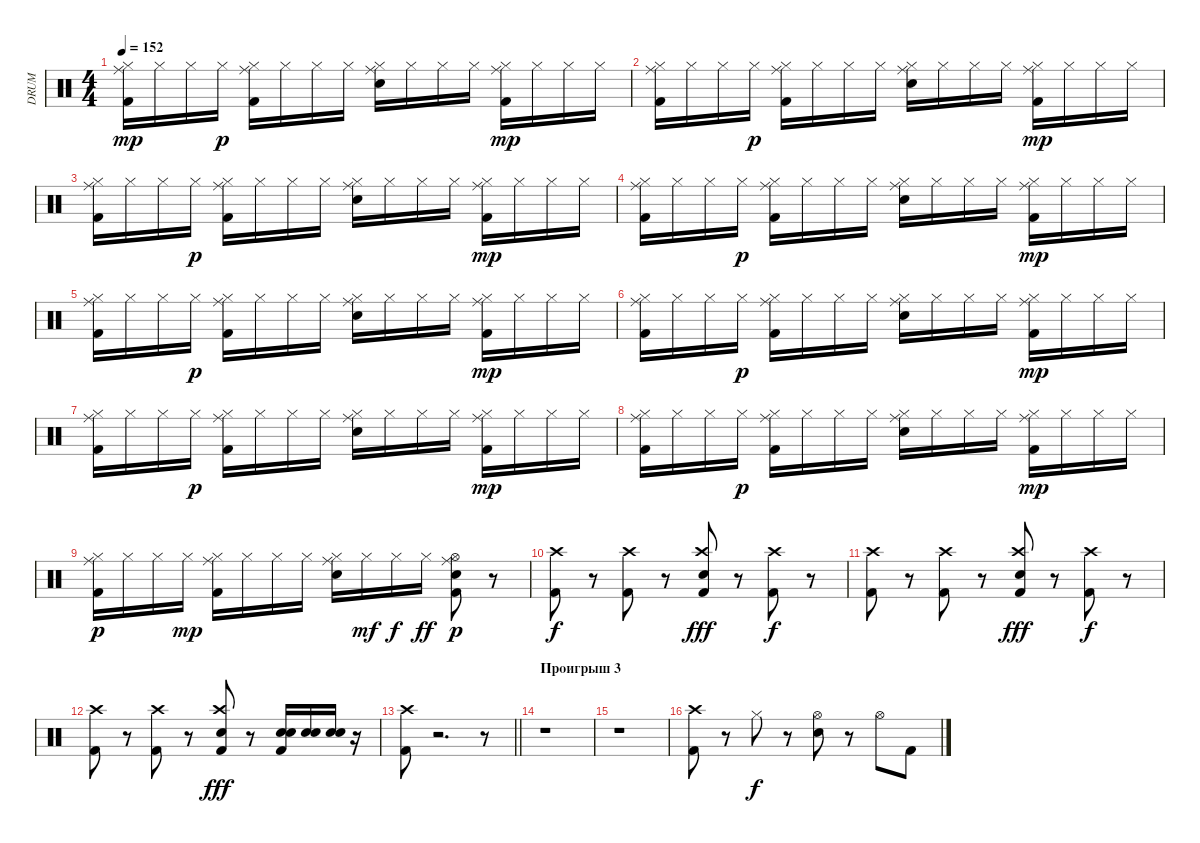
\track ("DRUM" "DRUM") {instrument percussion}
\staff {score}
\articulation defaults
\ts (4 4)
\tempo 152
\clef neutral
\ks c
("Ride (middle)" "Hi-Hat (closed)" "Kick (hit) 2").16{dy mp} "Hi-Hat (closed)".16 "Hi-Hat (closed)".16 "Hi-Hat (closed)".16{dy p} ("Ride (middle)" "Hi-Hat (closed)" "Kick (hit) 2").16 "Hi-Hat (closed)".16 "Hi-Hat (closed)".16 "Hi-Hat (closed)".16 ("Ride (middle)" "Hi-Hat (closed)" "Snare (hit) 2").16 "Hi-Hat (closed)".16 "Hi-Hat (closed)".16 "Hi-Hat (closed)".16 ("Ride (middle)" "Hi-Hat (closed)" "Kick (hit) 2").16{dy mp} "Hi-Hat (closed)".16 "Hi-Hat (closed)".16 "Hi-Hat (closed)".16 |
("Ride (middle)" "Hi-Hat (closed)" "Kick (hit) 2").16 "Hi-Hat (closed)".16 "Hi-Hat (closed)".16 "Hi-Hat (closed)".16{dy p} ("Ride (middle)" "Hi-Hat (closed)" "Kick (hit) 2").16 "Hi-Hat (closed)".16 "Hi-Hat (closed)".16 "Hi-Hat (closed)".16 ("Ride (middle)" "Hi-Hat (closed)" "Snare (hit) 2").16 "Hi-Hat (closed)".16 "Hi-Hat (closed)".16 "Hi-Hat (closed)".16 ("Ride (middle)" "Hi-Hat (closed)" "Kick (hit) 2").16{dy mp} "Hi-Hat (closed)".16 "Hi-Hat (closed)".16 "Hi-Hat (closed)".16 |
("Ride (middle)" "Hi-Hat (closed)" "Kick (hit) 2").16 "Hi-Hat (closed)".16 "Hi-Hat (closed)".16 "Hi-Hat (closed)".16{dy p} ("Ride (middle)" "Hi-Hat (closed)" "Kick (hit) 2").16 "Hi-Hat (closed)".16 "Hi-Hat (closed)".16 "Hi-Hat (closed)".16 ("Ride (middle)" "Hi-Hat (closed)" "Snare (hit) 2").16 "Hi-Hat (closed)".16 "Hi-Hat (closed)".16 "Hi-Hat (closed)".16 ("Ride (middle)" "Hi-Hat (closed)" "Kick (hit) 2").16{dy mp} "Hi-Hat (closed)".16 "Hi-Hat (closed)".16 "Hi-Hat (closed)".16 |
("Ride (middle)" "Hi-Hat (closed)" "Kick (hit) 2").16 "Hi-Hat (closed)".16 "Hi-Hat (closed)".16 "Hi-Hat (closed)".16{dy p} ("Ride (middle)" "Hi-Hat (closed)" "Kick (hit) 2").16 "Hi-Hat (closed)".16 "Hi-Hat (closed)".16 "Hi-Hat (closed)".16 ("Ride (middle)" "Hi-Hat (closed)" "Snare (hit) 2").16 "Hi-Hat (closed)".16 "Hi-Hat (closed)".16 "Hi-Hat (closed)".16 ("Ride (middle)" "Hi-Hat (closed)" "Kick (hit) 2").16{dy mp} "Hi-Hat (closed)".16 "Hi-Hat (closed)".16 "Hi-Hat (closed)".16 |
("Ride (middle)" "Hi-Hat (closed)" "Kick (hit) 2").16 "Hi-Hat (closed)".16 "Hi-Hat (closed)".16 "Hi-Hat (closed)".16{dy p} ("Ride (middle)" "Hi-Hat (closed)" "Kick (hit) 2").16 "Hi-Hat (closed)".16 "Hi-Hat (closed)".16 "Hi-Hat (closed)".16 ("Ride (middle)" "Hi-Hat (closed)" "Snare (hit) 2").16 "Hi-Hat (closed)".16 "Hi-Hat (closed)".16 "Hi-Hat (closed)".16 ("Ride (middle)" "Hi-Hat (closed)" "Kick (hit) 2").16{dy mp} "Hi-Hat (closed)".16 "Hi-Hat (closed)".16 "Hi-Hat (closed)".16 |
("Ride (middle)" "Hi-Hat (closed)" "Kick (hit) 2").16 "Hi-Hat (closed)".16 "Hi-Hat (closed)".16 "Hi-Hat (closed)".16{dy p} ("Ride (middle)" "Hi-Hat (closed)" "Kick (hit) 2").16 "Hi-Hat (closed)".16 "Hi-Hat (closed)".16 "Hi-Hat (closed)".16 ("Ride (middle)" "Hi-Hat (closed)" "Snare (hit) 2").16 "Hi-Hat (closed)".16 "Hi-Hat (closed)".16 "Hi-Hat (closed)".16 ("Ride (middle)" "Hi-Hat (closed)" "Kick (hit) 2").16{dy mp} "Hi-Hat (closed)".16 "Hi-Hat (closed)".16 "Hi-Hat (closed)".16 |
("Ride (middle)" "Hi-Hat (closed)" "Kick (hit) 2").16 "Hi-Hat (closed)".16 "Hi-Hat (closed)".16 "Hi-Hat (closed)".16{dy p} ("Ride (middle)" "Hi-Hat (closed)" "Kick (hit) 2").16 "Hi-Hat (closed)".16 "Hi-Hat (closed)".16 "Hi-Hat (closed)".16 ("Ride (middle)" "Hi-Hat (closed)" "Snare (hit) 2").16 "Hi-Hat (closed)".16 "Hi-Hat (closed)".16 "Hi-Hat (closed)".16 ("Ride (middle)" "Hi-Hat (closed)" "Kick (hit) 2").16{dy mp} "Hi-Hat (closed)".16 "Hi-Hat (closed)".16 "Hi-Hat (closed)".16 |
("Ride (middle)" "Hi-Hat (closed)" "Kick (hit) 2").16 "Hi-Hat (closed)".16 "Hi-Hat (closed)".16 "Hi-Hat (closed)".16{dy p} ("Ride (middle)" "Hi-Hat (closed)" "Kick (hit) 2").16 "Hi-Hat (closed)".16 "Hi-Hat (closed)".16 "Hi-Hat (closed)".16 ("Ride (middle)" "Hi-Hat (closed)" "Snare (hit) 2").16 "Hi-Hat (closed)".16 "Hi-Hat (closed)".16 "Hi-Hat (closed)".16 ("Ride (middle)" "Hi-Hat (closed)" "Kick (hit) 2").16{dy mp} "Hi-Hat (closed)".16 "Hi-Hat (closed)".16 "Hi-Hat (closed)".16 |
("Ride (middle)" "Hi-Hat (closed)" "Kick (hit) 2").16{dy p} "Hi-Hat (closed)".16 "Hi-Hat (closed)".16 "Hi-Hat (closed)".16{dy mp} ("Kick (hit) 2" "Hi-Hat (closed)" "Ride (middle)").16 "Hi-Hat (closed)".16 "Hi-Hat (closed)".16 "Hi-Hat (closed)".16 ("Ride (middle)" "Snare (hit) 2" "Hi-Hat (closed)").16 "Hi-Hat (closed)".16{dy mf} "Hi-Hat (closed)".16{dy f} "Hi-Hat (closed)".16{dy ff} ("Hi-Hat (open)" "Snare (hit) 2" "Ride (middle)" "Kick (hit) 2").8{dy p} r.8 |
("Kick (hit) 2" "Crash high (hit)").8{dy f} r.8 ("Kick (hit) 2" "Crash high (hit)").8 r.8 ("Kick (hit) 2" "Crash high (hit)" "Electric Snare (hit)").8{dy fff} r.8 ("Kick (hit) 2" "Crash high (hit)").8{dy f} r.8 |
("Kick (hit) 2" "Crash high (hit)").8 r.8 ("Kick (hit) 2" "Crash high (hit)").8 r.8 ("Kick (hit) 2" "Crash high (hit)" "Electric Snare (hit)").8{dy fff} r.8 ("Kick (hit) 2" "Crash high (hit)").8{dy f} r.8 |
("Kick (hit) 2" "Crash high (hit)").8 r.8 ("Kick (hit) 2" "Crash high (hit)").8 r.8 ("Kick (hit) 2" "Crash high (hit)" "Electric Snare (hit)").8{dy fff} r.8 ("Electric Snare (hit)" "Kick (hit) 2" "Snare (hit) 2").16 ("Electric Snare (hit)" "Snare (hit) 2").16 ("Electric Snare (hit)" "Snare (hit) 2").16 r.16 |
\barLineRight lightlight
("Kick (hit) 2" "Crash high (hit)").8 r.2{d} r.8 |
\section ("" "Проигрыш 3")
r.1 |
r.1 |
("Crash high (hit)" "Kick (hit) 2").8 r.8 "Hi-Hat (closed)".8{dy f} r.8 ("Hi-Hat (open)" "Snare (hit) 2").8 r.8 "Hi-Hat (open)".8 "Kick (hit) 2".8
